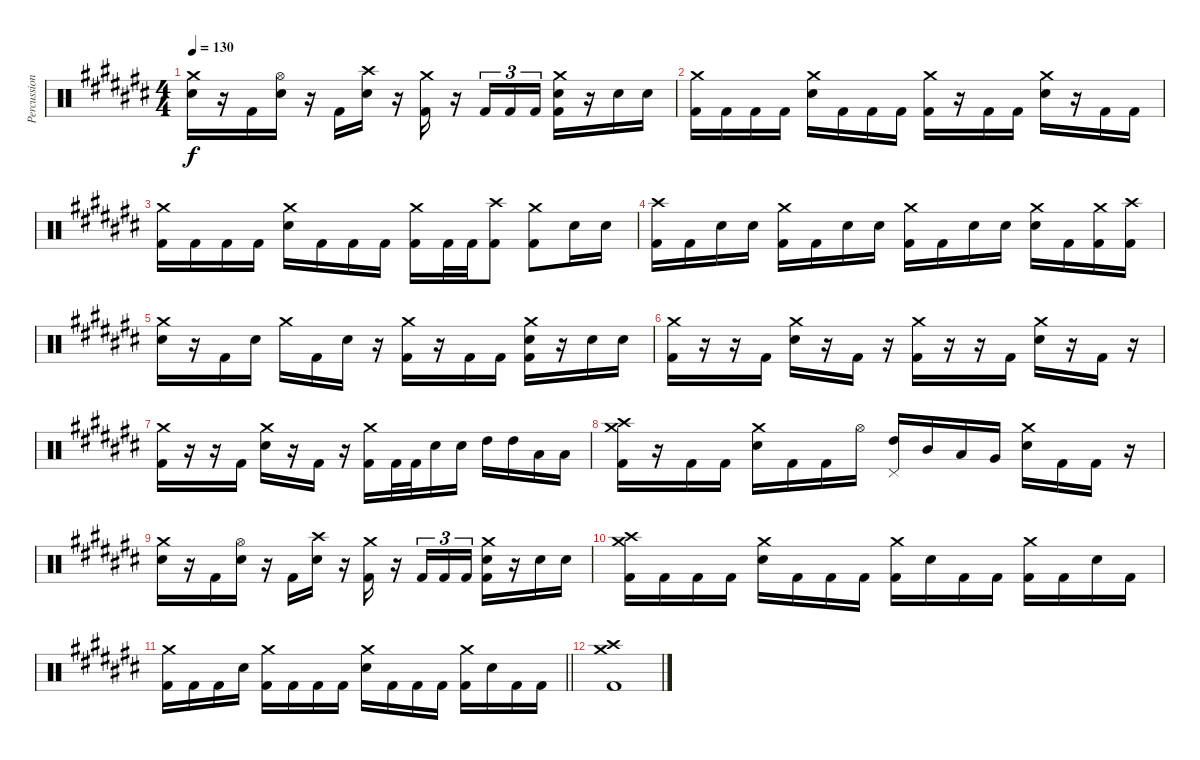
\track ("Percussion" "Percussion") {instrument percussion}
\staff {score}
\articulation defaults
\ts (4 4)
\tempo 130
\clef neutral
\ks a#minor
("Crash medium (hit)" "Electric Snare (hit)").16{dy f} r.16 "Kick (hit) 2".16 ("Hi-Hat (open)" "Electric Snare (hit)").16 r.16 "Kick (hit) 2".16 ("Crash high (hit)" "Electric Snare (hit)").16 r.16 ("Crash medium (hit)" "Kick (hit) 2").16 r.16 "Kick (hit) 2".16{tu (3 2)} "Kick (hit) 2".16{tu (3 2)} "Kick (hit) 2".16{tu (3 2)} ("Crash medium (hit)" "Electric Snare (hit)" "Kick (hit) 2").16 r.16 "Electric Snare (hit)".16 "Electric Snare (hit)".16 |
("Crash medium (hit)" "Kick (hit) 2").16 "Kick (hit) 2".16 "Kick (hit) 2".16 "Kick (hit) 2".16 ("Crash medium (hit)" "Electric Snare (hit)").16 "Kick (hit) 2".16 "Kick (hit) 2".16 "Kick (hit) 2".16 ("Crash medium (hit)" "Kick (hit) 2").16 r.16 "Kick (hit) 2".16 "Kick (hit) 2".16 ("Crash medium (hit)" "Electric Snare (hit)").16 r.16 "Kick (hit) 2".16 "Kick (hit) 2".16 |
("Crash medium (hit)" "Kick (hit) 2").16 "Kick (hit) 2".16 "Kick (hit) 2".16 "Kick (hit) 2".16 ("Crash medium (hit)" "Electric Snare (hit)").16 "Kick (hit) 2".16 "Kick (hit) 2".16 "Kick (hit) 2".16 ("Crash medium (hit)" "Kick (hit) 2").16 "Kick (hit) 2".32 "Kick (hit) 2".32 ("Crash high (hit)" "Kick (hit) 2").8 ("Crash medium (hit)" "Kick (hit) 2").8 "Electric Snare (hit)".16 "Electric Snare (hit)".16 |
("Crash high (hit)" "Kick (hit) 2").16 "Kick (hit) 2".16 "Electric Snare (hit)".16 "Electric Snare (hit)".16 ("Crash medium (hit)" "Kick (hit) 2").16 "Kick (hit) 2".16 "Electric Snare (hit)".16 "Electric Snare (hit)".16 ("Crash medium (hit)" "Kick (hit) 2").16 "Kick (hit) 2".16 "Electric Snare (hit)".16 "Electric Snare (hit)".16 ("Crash medium (hit)" "Electric Snare (hit)").16 "Kick (hit) 2".16 ("Crash medium (hit)" "Kick (hit) 2").16 ("Crash high (hit)" "Kick (hit) 2").16 |
("Crash medium (hit)" "Electric Snare (hit)").16 r.16 "Kick (hit) 2".16 "Electric Snare (hit)".16 "Crash medium (hit)".16 "Kick (hit) 2".16 "Electric Snare (hit)".16 r.16 ("Crash medium (hit)" "Kick (hit) 2").16 r.16 "Kick (hit) 2".16 "Kick (hit) 2".16 ("Crash medium (hit)" "Electric Snare (hit)" "Kick (hit) 2").16 r.16 "Electric Snare (hit)".16 "Electric Snare (hit)".16 |
("Crash medium (hit)" "Kick (hit) 2").16 r.16 r.16 "Kick (hit) 2".16 ("Crash medium (hit)" "Electric Snare (hit)").16 r.16 "Kick (hit) 2".16 r.16 ("Crash medium (hit)" "Kick (hit) 2").16 r.16 r.16 "Kick (hit) 2".16 ("Crash medium (hit)" "Electric Snare (hit)").16 r.16 "Kick (hit) 2".16 r.16 |
("Crash medium (hit)" "Kick (hit) 2").16 r.16 r.16 "Kick (hit) 2".16 ("Crash medium (hit)" "Electric Snare (hit)").16 r.16 "Kick (hit) 2".16 r.16 ("Crash medium (hit)" "Kick (hit) 2").16 "Kick (hit) 2".32 "Kick (hit) 2".32 "Electric Snare (hit)".16 "Electric Snare (hit)".16 "High Tom (hit)".16 "High Tom (hit)".16 "Low Tom (hit)".16 "Low Tom (hit)".16 |
("Crash medium (hit)" "Crash high (hit)" "Kick (hit) 2").16 r.16 "Kick (hit) 2".16 "Kick (hit) 2".16 ("Crash medium (hit)" "Electric Snare (hit)").16 "Kick (hit) 2".16 "Kick (hit) 2".16 "Hi-Hat (open)".16 ("Pedal Hi-Hat (hit)" "High Tom (hit)").16 "Mid Tom (hit)".16 "Low Tom (hit)".16 "Very Low Tom (hit)".16 ("Crash medium (hit)" "Electric Snare (hit)").16 "Kick (hit) 2".16 "Kick (hit) 2".16 r.16 |
("Crash medium (hit)" "Electric Snare (hit)").16 r.16 "Kick (hit) 2".16 ("Hi-Hat (open)" "Electric Snare (hit)").16 r.16 "Kick (hit) 2".16 ("Crash high (hit)" "Electric Snare (hit)").16 r.16 ("Crash medium (hit)" "Kick (hit) 2").16 r.16 "Kick (hit) 2".16{tu (3 2)} "Kick (hit) 2".16{tu (3 2)} "Kick (hit) 2".16{tu (3 2)} ("Crash medium (hit)" "Electric Snare (hit)" "Kick (hit) 2").16 r.16 "Electric Snare (hit)".16 "Electric Snare (hit)".16 |
("Crash medium (hit)" "Crash high (hit)" "Kick (hit) 2").16 "Kick (hit) 2".16 "Kick (hit) 2".16 "Kick (hit) 2".16 ("Crash medium (hit)" "Electric Snare (hit)").16 "Kick (hit) 2".16 "Kick (hit) 2".16 "Kick (hit) 2".16 ("Crash medium (hit)" "Kick (hit) 2").16 "Electric Snare (hit)".16 "Kick (hit) 2".16 "Kick (hit) 2".16 ("Crash medium (hit)" "Kick (hit) 2").16 "Kick (hit) 2".16 "Electric Snare (hit)".16 "Kick (hit) 2".16 |
\barLineRight lightlight
("Crash medium (hit)" "Kick (hit) 2").16 "Kick (hit) 2".16 "Kick (hit) 2".16 "Electric Snare (hit)".16 ("Crash medium (hit)" "Kick (hit) 2").16 "Kick (hit) 2".16 "Kick (hit) 2".16 "Kick (hit) 2".16 ("Crash medium (hit)" "Electric Snare (hit)").16 "Kick (hit) 2".16 "Kick (hit) 2".16 "Kick (hit) 2".16 ("Crash medium (hit)" "Kick (hit) 2").16 "Electric Snare (hit)".16 "Kick (hit) 2".16 "Kick (hit) 2".16 |
("Crash medium (hit)" "Crash high (hit)" "Kick (hit) 2").1
